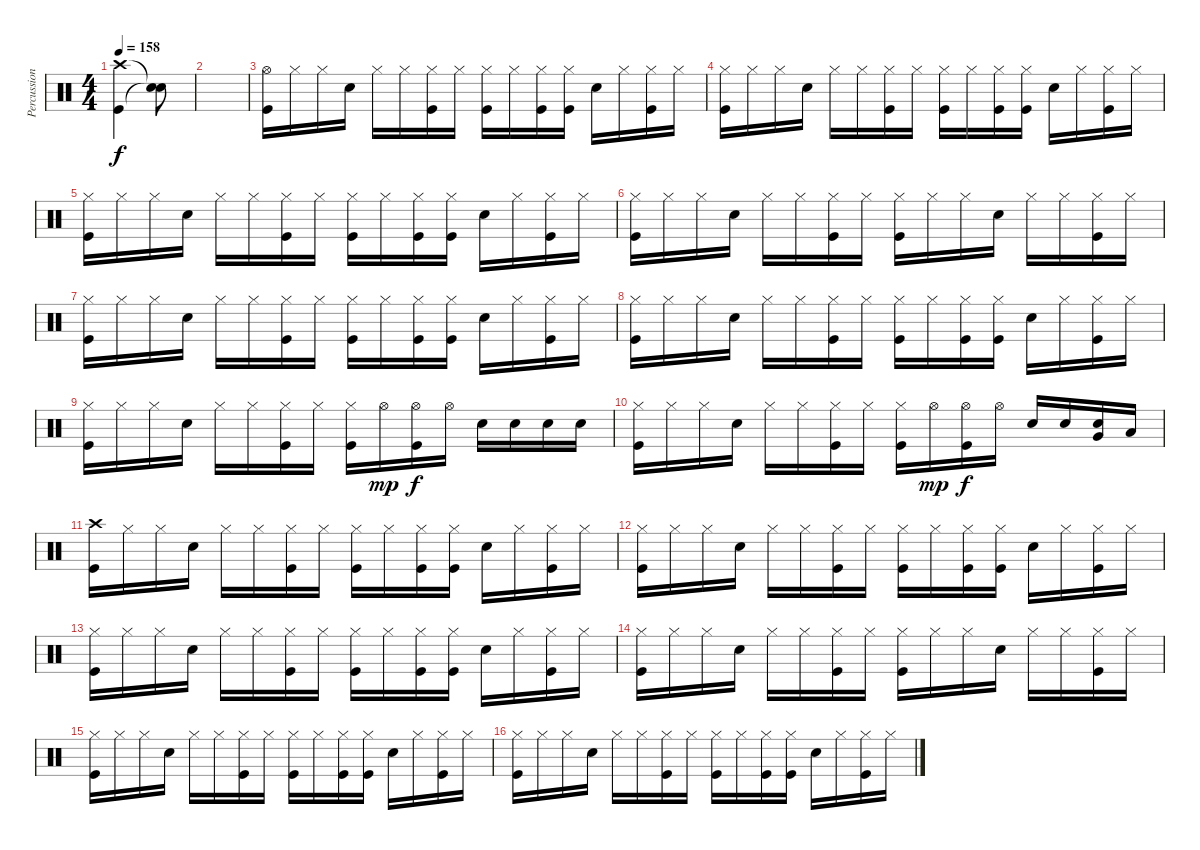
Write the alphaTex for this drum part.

\track ("Percussion" "Percussion") {instrument percussion}
\staff {score}
\articulation defaults
\ts (4 4)
\tempo 158
\clef neutral
\ks c
("Crash high (hit)" "Kick (hit)").4{dy f} ("Snare (hit)"{t} "Snare (hit)"{t}).8{volume 0} |
|
("Hi-Hat (open)" "Kick (hit)").16{volume 13} "Hi-Hat (closed)".16 "Hi-Hat (closed)".16 "Snare (hit) 2".16 "Hi-Hat (closed)".16 "Hi-Hat (closed)".16 ("Hi-Hat (closed)" "Kick (hit)").16 "Hi-Hat (closed)".16 ("Hi-Hat (closed)" "Kick (hit)").16 "Hi-Hat (closed)".16 ("Hi-Hat (closed)" "Kick (hit)").16 ("Hi-Hat (closed)" "Kick (hit)").16 "Snare (hit) 2".16 "Hi-Hat (closed)".16 ("Hi-Hat (closed)" "Kick (hit)").16 "Hi-Hat (closed)".16 |
("Hi-Hat (closed)" "Kick (hit)").16 "Hi-Hat (closed)".16 "Hi-Hat (closed)".16 "Snare (hit) 2".16 "Hi-Hat (closed)".16 "Hi-Hat (closed)".16 ("Hi-Hat (closed)" "Kick (hit)").16 "Hi-Hat (closed)".16 ("Hi-Hat (closed)" "Kick (hit)").16 "Hi-Hat (closed)".16 ("Hi-Hat (closed)" "Kick (hit)").16 ("Hi-Hat (closed)" "Kick (hit)").16 "Snare (hit) 2".16 "Hi-Hat (closed)".16 ("Hi-Hat (closed)" "Kick (hit)").16 "Hi-Hat (closed)".16 |
("Hi-Hat (closed)" "Kick (hit)").16 "Hi-Hat (closed)".16 "Hi-Hat (closed)".16 "Snare (hit) 2".16 "Hi-Hat (closed)".16 "Hi-Hat (closed)".16 ("Hi-Hat (closed)" "Kick (hit)").16 "Hi-Hat (closed)".16 ("Hi-Hat (closed)" "Kick (hit)").16 "Hi-Hat (closed)".16 ("Hi-Hat (closed)" "Kick (hit)").16 ("Hi-Hat (closed)" "Kick (hit)").16 "Snare (hit) 2".16 "Hi-Hat (closed)".16 ("Hi-Hat (closed)" "Kick (hit)").16 "Hi-Hat (closed)".16 |
("Hi-Hat (closed)" "Kick (hit)").16 "Hi-Hat (closed)".16 "Hi-Hat (closed)".16 "Snare (hit) 2".16 "Hi-Hat (closed)".16 "Hi-Hat (closed)".16 ("Hi-Hat (closed)" "Kick (hit)").16 "Hi-Hat (closed)".16 ("Hi-Hat (closed)" "Kick (hit)").16 "Hi-Hat (closed)".16 "Hi-Hat (closed)".16 "Snare (hit) 2".16 "Hi-Hat (closed)".16 "Hi-Hat (closed)".16 ("Hi-Hat (closed)" "Kick (hit)").16 "Hi-Hat (closed)".16 |
("Hi-Hat (closed)" "Kick (hit)").16 "Hi-Hat (closed)".16 "Hi-Hat (closed)".16 "Snare (hit) 2".16 "Hi-Hat (closed)".16 "Hi-Hat (closed)".16 ("Hi-Hat (closed)" "Kick (hit)").16 "Hi-Hat (closed)".16 ("Hi-Hat (closed)" "Kick (hit)").16 "Hi-Hat (closed)".16 ("Hi-Hat (closed)" "Kick (hit)").16 ("Hi-Hat (closed)" "Kick (hit)").16 "Snare (hit) 2".16 "Hi-Hat (closed)".16 ("Hi-Hat (closed)" "Kick (hit)").16 "Hi-Hat (closed)".16 |
("Hi-Hat (closed)" "Kick (hit)").16 "Hi-Hat (closed)".16 "Hi-Hat (closed)".16 "Snare (hit) 2".16 "Hi-Hat (closed)".16 "Hi-Hat (closed)".16 ("Hi-Hat (closed)" "Kick (hit)").16 "Hi-Hat (closed)".16 ("Hi-Hat (closed)" "Kick (hit)").16 "Hi-Hat (closed)".16 ("Hi-Hat (closed)" "Kick (hit)").16 ("Hi-Hat (closed)" "Kick (hit)").16 "Snare (hit) 2".16 "Hi-Hat (closed)".16 ("Hi-Hat (closed)" "Kick (hit)").16 "Hi-Hat (closed)".16 |
("Hi-Hat (closed)" "Kick (hit)").16 "Hi-Hat (closed)".16 "Hi-Hat (closed)".16 "Snare (hit) 2".16 "Hi-Hat (closed)".16 "Hi-Hat (closed)".16 ("Hi-Hat (closed)" "Kick (hit)").16 "Hi-Hat (closed)".16 ("Hi-Hat (closed)" "Kick (hit)").16 "Hi-Hat (open)".16{dy mp} ("Hi-Hat (open)" "Kick (hit)").16{dy f} "Hi-Hat (open)".16 "Snare (hit) 2".16 "Snare (hit) 2".16 "Snare (hit) 2".16 "Snare (hit) 2".16 |
("Hi-Hat (closed)" "Kick (hit)").16 "Hi-Hat (closed)".16 "Hi-Hat (closed)".16 "Snare (hit) 2".16 "Hi-Hat (closed)".16 "Hi-Hat (closed)".16 ("Hi-Hat (closed)" "Kick (hit)").16 "Hi-Hat (closed)".16 ("Hi-Hat (closed)" "Kick (hit)").16 "Hi-Hat (open)".16{dy mp} ("Hi-Hat (open)" "Kick (hit)").16{dy f} "Hi-Hat (open)".16 "Snare (hit) 2".16 "Snare (hit) 2".16 ("Very Low Tom (hit)" "Snare (hit) 2").16 "Low Floor Tom (hit)".16 |
("Crash high (hit)" "Kick (hit)").16 "Hi-Hat (closed)".16 "Hi-Hat (closed)".16 "Snare (hit) 2".16 "Hi-Hat (closed)".16 "Hi-Hat (closed)".16 ("Hi-Hat (closed)" "Kick (hit)").16 "Hi-Hat (closed)".16 ("Hi-Hat (closed)" "Kick (hit)").16 "Hi-Hat (closed)".16 ("Hi-Hat (closed)" "Kick (hit)").16 ("Hi-Hat (closed)" "Kick (hit)").16 "Snare (hit) 2".16 "Hi-Hat (closed)".16 ("Hi-Hat (closed)" "Kick (hit)").16 "Hi-Hat (closed)".16 |
("Hi-Hat (closed)" "Kick (hit)").16 "Hi-Hat (closed)".16 "Hi-Hat (closed)".16 "Snare (hit) 2".16 "Hi-Hat (closed)".16 "Hi-Hat (closed)".16 ("Hi-Hat (closed)" "Kick (hit)").16 "Hi-Hat (closed)".16 ("Hi-Hat (closed)" "Kick (hit)").16 "Hi-Hat (closed)".16 ("Hi-Hat (closed)" "Kick (hit)").16 ("Hi-Hat (closed)" "Kick (hit)").16 "Snare (hit) 2".16 "Hi-Hat (closed)".16 ("Hi-Hat (closed)" "Kick (hit)").16 "Hi-Hat (closed)".16 |
("Hi-Hat (closed)" "Kick (hit)").16 "Hi-Hat (closed)".16 "Hi-Hat (closed)".16 "Snare (hit) 2".16 "Hi-Hat (closed)".16 "Hi-Hat (closed)".16 ("Hi-Hat (closed)" "Kick (hit)").16 "Hi-Hat (closed)".16 ("Hi-Hat (closed)" "Kick (hit)").16 "Hi-Hat (closed)".16 ("Hi-Hat (closed)" "Kick (hit)").16 ("Hi-Hat (closed)" "Kick (hit)").16 "Snare (hit) 2".16 "Hi-Hat (closed)".16 ("Hi-Hat (closed)" "Kick (hit)").16 "Hi-Hat (closed)".16 |
("Hi-Hat (closed)" "Kick (hit)").16 "Hi-Hat (closed)".16 "Hi-Hat (closed)".16 "Snare (hit) 2".16 "Hi-Hat (closed)".16 "Hi-Hat (closed)".16 ("Hi-Hat (closed)" "Kick (hit)").16 "Hi-Hat (closed)".16 ("Hi-Hat (closed)" "Kick (hit)").16 "Hi-Hat (closed)".16 "Hi-Hat (closed)".16 "Snare (hit) 2".16 "Hi-Hat (closed)".16 "Hi-Hat (closed)".16 ("Hi-Hat (closed)" "Kick (hit)").16 "Hi-Hat (closed)".16 |
("Hi-Hat (closed)" "Kick (hit)").16 "Hi-Hat (closed)".16 "Hi-Hat (closed)".16 "Snare (hit) 2".16 "Hi-Hat (closed)".16 "Hi-Hat (closed)".16 ("Hi-Hat (closed)" "Kick (hit)").16 "Hi-Hat (closed)".16 ("Hi-Hat (closed)" "Kick (hit)").16 "Hi-Hat (closed)".16 ("Hi-Hat (closed)" "Kick (hit)").16 ("Hi-Hat (closed)" "Kick (hit)").16 "Snare (hit) 2".16 "Hi-Hat (closed)".16 ("Hi-Hat (closed)" "Kick (hit)").16 "Hi-Hat (closed)".16 |
("Hi-Hat (closed)" "Kick (hit)").16 "Hi-Hat (closed)".16 "Hi-Hat (closed)".16 "Snare (hit) 2".16 "Hi-Hat (closed)".16 "Hi-Hat (closed)".16 ("Hi-Hat (closed)" "Kick (hit)").16 "Hi-Hat (closed)".16 ("Hi-Hat (closed)" "Kick (hit)").16 "Hi-Hat (closed)".16 ("Hi-Hat (closed)" "Kick (hit)").16 ("Hi-Hat (closed)" "Kick (hit)").16 "Snare (hit) 2".16 "Hi-Hat (closed)".16 ("Hi-Hat (closed)" "Kick (hit)").16 "Hi-Hat (closed)".16
